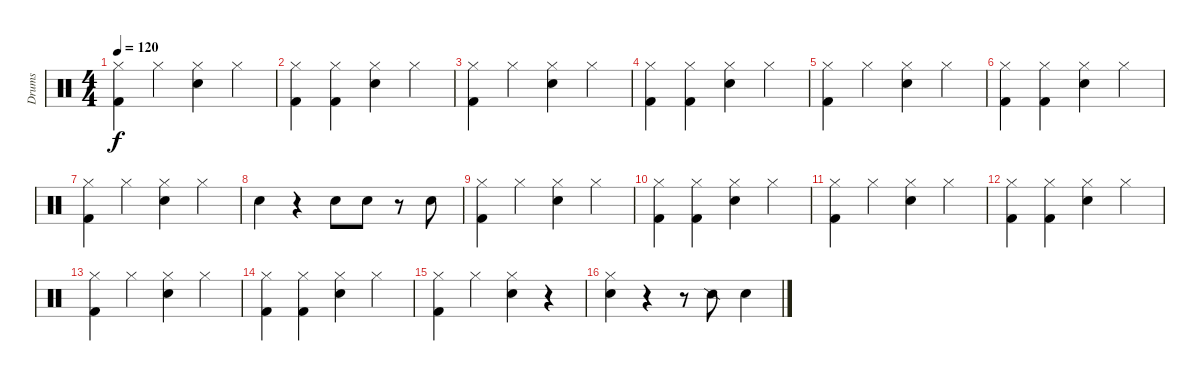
\track ("Drums" "Drums") {instrument percussion}
\staff {score}
\articulation defaults
\ts (4 4)
\tempo 120
\clef neutral
\ks c
("Kick (hit) 2" "Hi-Hat (closed)").4{dy f} "Hi-Hat (closed)".4 ("Snare (hit) 2" "Hi-Hat (closed)").4 "Hi-Hat (closed)".4 |
("Kick (hit) 2" "Hi-Hat (closed)").4 ("Kick (hit) 2" "Hi-Hat (closed)").4 ("Snare (hit) 2" "Hi-Hat (closed)").4 "Hi-Hat (closed)".4 |
("Kick (hit) 2" "Hi-Hat (closed)").4 "Hi-Hat (closed)".4 ("Snare (hit) 2" "Hi-Hat (closed)").4 "Hi-Hat (closed)".4 |
("Kick (hit) 2" "Hi-Hat (closed)").4 ("Kick (hit) 2" "Hi-Hat (closed)").4 ("Snare (hit) 2" "Hi-Hat (closed)").4 "Hi-Hat (closed)".4 |
("Kick (hit) 2" "Hi-Hat (closed)").4 "Hi-Hat (closed)".4 ("Snare (hit) 2" "Hi-Hat (closed)").4 "Hi-Hat (closed)".4 |
("Kick (hit) 2" "Hi-Hat (closed)").4 ("Kick (hit) 2" "Hi-Hat (closed)").4 ("Snare (hit) 2" "Hi-Hat (closed)").4 "Hi-Hat (closed)".4 |
("Kick (hit) 2" "Hi-Hat (closed)").4 "Hi-Hat (closed)".4 ("Snare (hit) 2" "Hi-Hat (closed)").4 "Hi-Hat (closed)".4 |
"Snare (hit) 2".4 r.4 "Snare (hit) 2".8 "Snare (hit) 2".8 r.8 "Snare (hit) 2".8 |
("Kick (hit) 2" "Hi-Hat (closed)").4 "Hi-Hat (closed)".4 ("Snare (hit) 2" "Hi-Hat (closed)").4 "Hi-Hat (closed)".4 |
("Kick (hit) 2" "Hi-Hat (closed)").4 ("Kick (hit) 2" "Hi-Hat (closed)").4 ("Snare (hit) 2" "Hi-Hat (closed)").4 "Hi-Hat (closed)".4 |
("Kick (hit) 2" "Hi-Hat (closed)").4 "Hi-Hat (closed)".4 ("Snare (hit) 2" "Hi-Hat (closed)").4 "Hi-Hat (closed)".4 |
("Kick (hit) 2" "Hi-Hat (closed)").4 ("Kick (hit) 2" "Hi-Hat (closed)").4 ("Snare (hit) 2" "Hi-Hat (closed)").4 "Hi-Hat (closed)".4 |
("Kick (hit) 2" "Hi-Hat (closed)").4 "Hi-Hat (closed)".4 ("Snare (hit) 2" "Hi-Hat (closed)").4 "Hi-Hat (closed)".4 |
("Kick (hit) 2" "Hi-Hat (closed)").4 ("Kick (hit) 2" "Hi-Hat (closed)").4 ("Snare (hit) 2" "Hi-Hat (closed)").4 "Hi-Hat (closed)".4 |
("Kick (hit) 2" "Hi-Hat (closed)").4 "Hi-Hat (closed)".4 ("Snare (hit) 2" "Hi-Hat (closed)").4 r.4 |
("Snare (hit) 2" "Hi-Hat (closed)").4 r.4 r.8 "Snare (side stick) 2".8 "Snare (hit) 2".4
